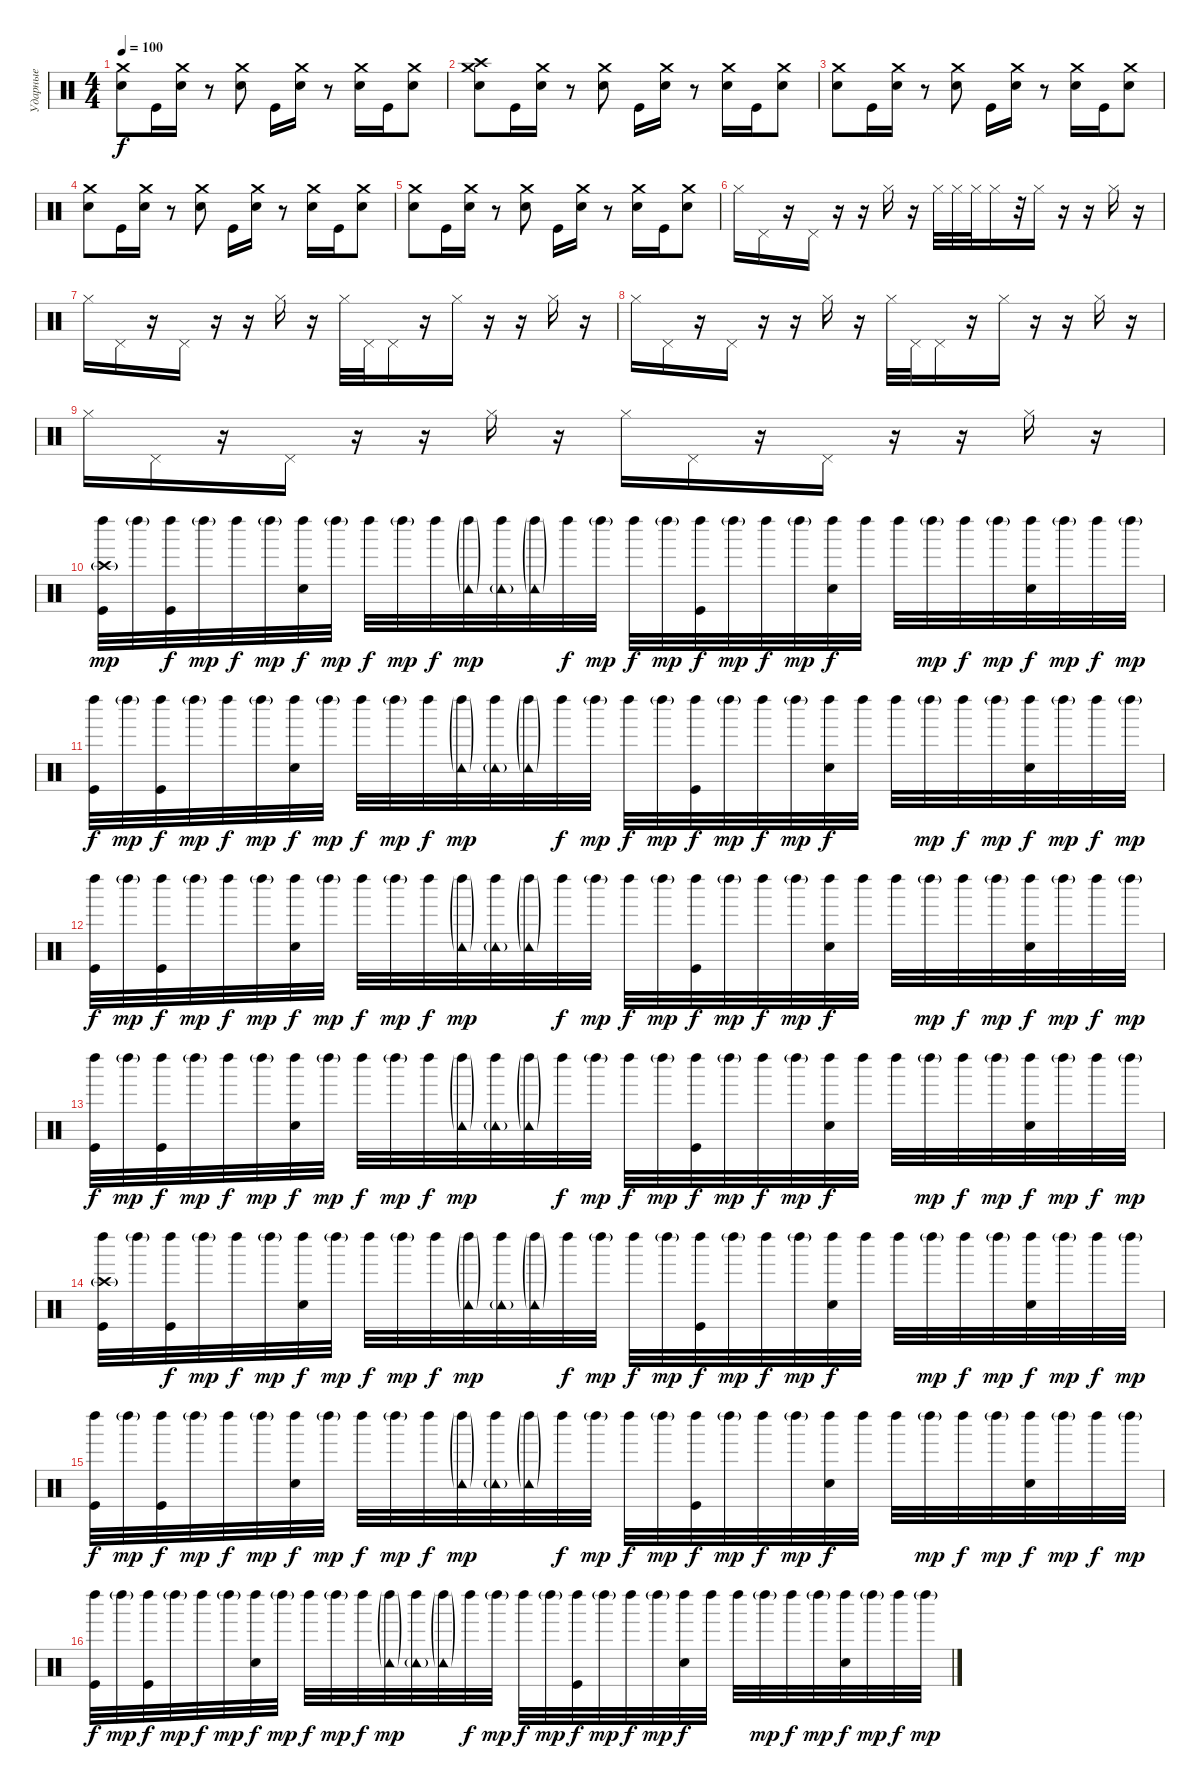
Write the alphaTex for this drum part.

\track ("Ударные" "Ударные") {instrument percussion}
\staff {score}
\articulation defaults
\ts (4 4)
\tempo 100
\clef neutral
\ks c
("Crash medium (hit)" "Electric Snare (hit)").8{dy f} "Kick (hit)".16 ("Crash medium (hit)" "Electric Snare (hit)").16 r.8 ("Crash medium (hit)" "Electric Snare (hit)").8 "Kick (hit)".16 ("Crash medium (hit)" "Electric Snare (hit)").16 r.8 ("Crash medium (hit)" "Electric Snare (hit)").16 "Kick (hit)".16 ("Crash medium (hit)" "Electric Snare (hit)").8 |
("Crash high (hit)" "Crash medium (hit)" "Electric Snare (hit)").8 "Kick (hit)".16 ("Crash medium (hit)" "Electric Snare (hit)").16 r.8 ("Crash medium (hit)" "Electric Snare (hit)").8 "Kick (hit)".16 ("Crash medium (hit)" "Electric Snare (hit)").16 r.8 ("Crash medium (hit)" "Electric Snare (hit)").16 "Kick (hit)".16 ("Crash medium (hit)" "Electric Snare (hit)").8 |
("Crash medium (hit)" "Electric Snare (hit)").8 "Kick (hit)".16 ("Crash medium (hit)" "Electric Snare (hit)").16 r.8 ("Crash medium (hit)" "Electric Snare (hit)").8 "Kick (hit)".16 ("Crash medium (hit)" "Electric Snare (hit)").16 r.8 ("Crash medium (hit)" "Electric Snare (hit)").16 "Kick (hit)".16 ("Crash medium (hit)" "Electric Snare (hit)").8 |
("Crash medium (hit)" "Electric Snare (hit)").8 "Kick (hit)".16 ("Crash medium (hit)" "Electric Snare (hit)").16 r.8 ("Crash medium (hit)" "Electric Snare (hit)").8 "Kick (hit)".16 ("Crash medium (hit)" "Electric Snare (hit)").16 r.8 ("Crash medium (hit)" "Electric Snare (hit)").16 "Kick (hit)".16 ("Crash medium (hit)" "Electric Snare (hit)").8 |
("Crash medium (hit)" "Electric Snare (hit)").8 "Kick (hit)".16 ("Crash medium (hit)" "Electric Snare (hit)").16 r.8 ("Crash medium (hit)" "Electric Snare (hit)").8 "Kick (hit)".16 ("Crash medium (hit)" "Electric Snare (hit)").16 r.8 ("Crash medium (hit)" "Electric Snare (hit)").16 "Kick (hit)".16 ("Crash medium (hit)" "Electric Snare (hit)").8 |
"Hi-Hat (closed)".16 "Pedal Hi-Hat (hit)".16 r.16 "Pedal Hi-Hat (hit)".16 r.16 r.16 "Hi-Hat (closed)".16 r.16 "Hi-Hat (closed)".32 "Hi-Hat (closed)".32 "Hi-Hat (closed)".32 "Hi-Hat (closed)".16 r.32 "Hi-Hat (closed)".16 r.16 r.16 "Hi-Hat (closed)".16 r.16 |
"Hi-Hat (closed)".16 "Pedal Hi-Hat (hit)".16 r.16 "Pedal Hi-Hat (hit)".16 r.16 r.16 "Hi-Hat (closed)".16 r.16 "Hi-Hat (closed)".32 "Pedal Hi-Hat (hit)".32 "Pedal Hi-Hat (hit)".16 r.16 "Hi-Hat (closed)".16 r.16 r.16 "Hi-Hat (closed)".16 r.16 |
"Hi-Hat (closed)".16 "Pedal Hi-Hat (hit)".16 r.16 "Pedal Hi-Hat (hit)".16 r.16 r.16 "Hi-Hat (closed)".16 r.16 "Hi-Hat (closed)".32 "Pedal Hi-Hat (hit)".32 "Pedal Hi-Hat (hit)".16 r.16 "Hi-Hat (closed)".16 r.16 r.16 "Hi-Hat (closed)".16 r.16 |
"Hi-Hat (closed)".16 "Pedal Hi-Hat (hit)".16 r.16 "Pedal Hi-Hat (hit)".16 r.16 r.16 "Hi-Hat (closed)".16 r.16 "Hi-Hat (closed)".16 "Pedal Hi-Hat (hit)".16 r.16 "Pedal Hi-Hat (hit)".16 r.16 r.16 "Hi-Hat (closed)".16 r.16 |
("Left Maraca (hit)" "Crash high (hit)"{g} "Kick (hit)").32{dy mp} "Left Maraca (hit)"{g}.32 ("Left Maraca (hit)" "Kick (hit)").32{dy f} "Left Maraca (hit)"{g}.32{dy mp} "Left Maraca (hit)".32{dy f} "Left Maraca (hit)"{g}.32{dy mp} ("Left Maraca (hit)" "Electric Snare (hit)").32{dy f} "Left Maraca (hit)"{g}.32{dy mp} "Left Maraca (hit)".32{dy f} "Left Maraca (hit)"{g}.32{dy mp} "Left Maraca (hit)".32{dy f} ("Left Maraca (hit)"{g} "Tambourine (hit)"{g}).32{dy mp} ("Left Maraca (hit)" "Tambourine (hit)"{g}).32 ("Left Maraca (hit)"{g} "Tambourine (hit)"{g}).32 "Left Maraca (hit)".32{dy f} "Left Maraca (hit)"{g}.32{dy mp} "Left Maraca (hit)".32{dy f} "Left Maraca (hit)"{g}.32{dy mp} ("Left Maraca (hit)" "Kick (hit)").32{dy f} "Left Maraca (hit)"{g}.32{dy mp} "Left Maraca (hit)".32{dy f} "Left Maraca (hit)"{g}.32{dy mp} ("Left Maraca (hit)" "Electric Snare (hit)").32{dy f} "Left Maraca (hit)".32 "Left Maraca (hit)".32 "Left Maraca (hit)"{g}.32{dy mp} "Left Maraca (hit)".32{dy f} "Left Maraca (hit)"{g}.32{dy mp} ("Left Maraca (hit)" "Electric Snare (hit)").32{dy f} "Left Maraca (hit)"{g}.32{dy mp} "Left Maraca (hit)".32{dy f} "Left Maraca (hit)"{g}.32{dy mp} |
("Left Maraca (hit)" "Kick (hit)").32{dy f} "Left Maraca (hit)"{g}.32{dy mp} ("Left Maraca (hit)" "Kick (hit)").32{dy f} "Left Maraca (hit)"{g}.32{dy mp} "Left Maraca (hit)".32{dy f} "Left Maraca (hit)"{g}.32{dy mp} ("Left Maraca (hit)" "Electric Snare (hit)").32{dy f} "Left Maraca (hit)"{g}.32{dy mp} "Left Maraca (hit)".32{dy f} "Left Maraca (hit)"{g}.32{dy mp} "Left Maraca (hit)".32{dy f} ("Left Maraca (hit)"{g} "Tambourine (hit)"{g}).32{dy mp} ("Left Maraca (hit)" "Tambourine (hit)"{g}).32 ("Left Maraca (hit)"{g} "Tambourine (hit)"{g}).32 "Left Maraca (hit)".32{dy f} "Left Maraca (hit)"{g}.32{dy mp} "Left Maraca (hit)".32{dy f} "Left Maraca (hit)"{g}.32{dy mp} ("Left Maraca (hit)" "Kick (hit)").32{dy f} "Left Maraca (hit)"{g}.32{dy mp} "Left Maraca (hit)".32{dy f} "Left Maraca (hit)"{g}.32{dy mp} ("Left Maraca (hit)" "Electric Snare (hit)").32{dy f} "Left Maraca (hit)".32 "Left Maraca (hit)".32 "Left Maraca (hit)"{g}.32{dy mp} "Left Maraca (hit)".32{dy f} "Left Maraca (hit)"{g}.32{dy mp} ("Left Maraca (hit)" "Electric Snare (hit)").32{dy f} "Left Maraca (hit)"{g}.32{dy mp} "Left Maraca (hit)".32{dy f} "Left Maraca (hit)"{g}.32{dy mp} |
("Left Maraca (hit)" "Kick (hit)").32{dy f} "Left Maraca (hit)"{g}.32{dy mp} ("Left Maraca (hit)" "Kick (hit)").32{dy f} "Left Maraca (hit)"{g}.32{dy mp} "Left Maraca (hit)".32{dy f} "Left Maraca (hit)"{g}.32{dy mp} ("Left Maraca (hit)" "Electric Snare (hit)").32{dy f} "Left Maraca (hit)"{g}.32{dy mp} "Left Maraca (hit)".32{dy f} "Left Maraca (hit)"{g}.32{dy mp} "Left Maraca (hit)".32{dy f} ("Left Maraca (hit)"{g} "Tambourine (hit)"{g}).32{dy mp} ("Left Maraca (hit)" "Tambourine (hit)"{g}).32 ("Left Maraca (hit)"{g} "Tambourine (hit)"{g}).32 "Left Maraca (hit)".32{dy f} "Left Maraca (hit)"{g}.32{dy mp} "Left Maraca (hit)".32{dy f} "Left Maraca (hit)"{g}.32{dy mp} ("Left Maraca (hit)" "Kick (hit)").32{dy f} "Left Maraca (hit)"{g}.32{dy mp} "Left Maraca (hit)".32{dy f} "Left Maraca (hit)"{g}.32{dy mp} ("Left Maraca (hit)" "Electric Snare (hit)").32{dy f} "Left Maraca (hit)".32 "Left Maraca (hit)".32 "Left Maraca (hit)"{g}.32{dy mp} "Left Maraca (hit)".32{dy f} "Left Maraca (hit)"{g}.32{dy mp} ("Left Maraca (hit)" "Electric Snare (hit)").32{dy f} "Left Maraca (hit)"{g}.32{dy mp} "Left Maraca (hit)".32{dy f} "Left Maraca (hit)"{g}.32{dy mp} |
("Left Maraca (hit)" "Kick (hit)").32{dy f} "Left Maraca (hit)"{g}.32{dy mp} ("Left Maraca (hit)" "Kick (hit)").32{dy f} "Left Maraca (hit)"{g}.32{dy mp} "Left Maraca (hit)".32{dy f} "Left Maraca (hit)"{g}.32{dy mp} ("Left Maraca (hit)" "Electric Snare (hit)").32{dy f} "Left Maraca (hit)"{g}.32{dy mp} "Left Maraca (hit)".32{dy f} "Left Maraca (hit)"{g}.32{dy mp} "Left Maraca (hit)".32{dy f} ("Left Maraca (hit)"{g} "Tambourine (hit)"{g}).32{dy mp} ("Left Maraca (hit)" "Tambourine (hit)"{g}).32 ("Left Maraca (hit)"{g} "Tambourine (hit)"{g}).32 "Left Maraca (hit)".32{dy f} "Left Maraca (hit)"{g}.32{dy mp} "Left Maraca (hit)".32{dy f} "Left Maraca (hit)"{g}.32{dy mp} ("Left Maraca (hit)" "Kick (hit)").32{dy f} "Left Maraca (hit)"{g}.32{dy mp} "Left Maraca (hit)".32{dy f} "Left Maraca (hit)"{g}.32{dy mp} ("Left Maraca (hit)" "Electric Snare (hit)").32{dy f} "Left Maraca (hit)".32 "Left Maraca (hit)".32 "Left Maraca (hit)"{g}.32{dy mp} "Left Maraca (hit)".32{dy f} "Left Maraca (hit)"{g}.32{dy mp} ("Left Maraca (hit)" "Electric Snare (hit)").32{dy f} "Left Maraca (hit)"{g}.32{dy mp} "Left Maraca (hit)".32{dy f} "Left Maraca (hit)"{g}.32{dy mp} |
("Left Maraca (hit)" "Crash high (hit)"{g} "Kick (hit)").32 "Left Maraca (hit)"{g}.32 ("Left Maraca (hit)" "Kick (hit)").32{dy f} "Left Maraca (hit)"{g}.32{dy mp} "Left Maraca (hit)".32{dy f} "Left Maraca (hit)"{g}.32{dy mp} ("Left Maraca (hit)" "Electric Snare (hit)").32{dy f} "Left Maraca (hit)"{g}.32{dy mp} "Left Maraca (hit)".32{dy f} "Left Maraca (hit)"{g}.32{dy mp} "Left Maraca (hit)".32{dy f} ("Left Maraca (hit)"{g} "Tambourine (hit)"{g}).32{dy mp} ("Left Maraca (hit)" "Tambourine (hit)"{g}).32 ("Left Maraca (hit)"{g} "Tambourine (hit)"{g}).32 "Left Maraca (hit)".32{dy f} "Left Maraca (hit)"{g}.32{dy mp} "Left Maraca (hit)".32{dy f} "Left Maraca (hit)"{g}.32{dy mp} ("Left Maraca (hit)" "Kick (hit)").32{dy f} "Left Maraca (hit)"{g}.32{dy mp} "Left Maraca (hit)".32{dy f} "Left Maraca (hit)"{g}.32{dy mp} ("Left Maraca (hit)" "Electric Snare (hit)").32{dy f} "Left Maraca (hit)".32 "Left Maraca (hit)".32 "Left Maraca (hit)"{g}.32{dy mp} "Left Maraca (hit)".32{dy f} "Left Maraca (hit)"{g}.32{dy mp} ("Left Maraca (hit)" "Electric Snare (hit)").32{dy f} "Left Maraca (hit)"{g}.32{dy mp} "Left Maraca (hit)".32{dy f} "Left Maraca (hit)"{g}.32{dy mp} |
("Left Maraca (hit)" "Kick (hit)").32{dy f} "Left Maraca (hit)"{g}.32{dy mp} ("Left Maraca (hit)" "Kick (hit)").32{dy f} "Left Maraca (hit)"{g}.32{dy mp} "Left Maraca (hit)".32{dy f} "Left Maraca (hit)"{g}.32{dy mp} ("Left Maraca (hit)" "Electric Snare (hit)").32{dy f} "Left Maraca (hit)"{g}.32{dy mp} "Left Maraca (hit)".32{dy f} "Left Maraca (hit)"{g}.32{dy mp} "Left Maraca (hit)".32{dy f} ("Left Maraca (hit)"{g} "Tambourine (hit)"{g}).32{dy mp} ("Left Maraca (hit)" "Tambourine (hit)"{g}).32 ("Left Maraca (hit)"{g} "Tambourine (hit)"{g}).32 "Left Maraca (hit)".32{dy f} "Left Maraca (hit)"{g}.32{dy mp} "Left Maraca (hit)".32{dy f} "Left Maraca (hit)"{g}.32{dy mp} ("Left Maraca (hit)" "Kick (hit)").32{dy f} "Left Maraca (hit)"{g}.32{dy mp} "Left Maraca (hit)".32{dy f} "Left Maraca (hit)"{g}.32{dy mp} ("Left Maraca (hit)" "Electric Snare (hit)").32{dy f} "Left Maraca (hit)".32 "Left Maraca (hit)".32 "Left Maraca (hit)"{g}.32{dy mp} "Left Maraca (hit)".32{dy f} "Left Maraca (hit)"{g}.32{dy mp} ("Left Maraca (hit)" "Electric Snare (hit)").32{dy f} "Left Maraca (hit)"{g}.32{dy mp} "Left Maraca (hit)".32{dy f} "Left Maraca (hit)"{g}.32{dy mp} |
("Left Maraca (hit)" "Kick (hit)").32{dy f} "Left Maraca (hit)"{g}.32{dy mp} ("Left Maraca (hit)" "Kick (hit)").32{dy f} "Left Maraca (hit)"{g}.32{dy mp} "Left Maraca (hit)".32{dy f} "Left Maraca (hit)"{g}.32{dy mp} ("Left Maraca (hit)" "Electric Snare (hit)").32{dy f} "Left Maraca (hit)"{g}.32{dy mp} "Left Maraca (hit)".32{dy f} "Left Maraca (hit)"{g}.32{dy mp} "Left Maraca (hit)".32{dy f} ("Left Maraca (hit)"{g} "Tambourine (hit)"{g}).32{dy mp} ("Left Maraca (hit)" "Tambourine (hit)"{g}).32 ("Left Maraca (hit)"{g} "Tambourine (hit)"{g}).32 "Left Maraca (hit)".32{dy f} "Left Maraca (hit)"{g}.32{dy mp} "Left Maraca (hit)".32{dy f} "Left Maraca (hit)"{g}.32{dy mp} ("Left Maraca (hit)" "Kick (hit)").32{dy f} "Left Maraca (hit)"{g}.32{dy mp} "Left Maraca (hit)".32{dy f} "Left Maraca (hit)"{g}.32{dy mp} ("Left Maraca (hit)" "Electric Snare (hit)").32{dy f} "Left Maraca (hit)".32 "Left Maraca (hit)".32 "Left Maraca (hit)"{g}.32{dy mp} "Left Maraca (hit)".32{dy f} "Left Maraca (hit)"{g}.32{dy mp} ("Left Maraca (hit)" "Electric Snare (hit)").32{dy f} "Left Maraca (hit)"{g}.32{dy mp} "Left Maraca (hit)".32{dy f} "Left Maraca (hit)"{g}.32{dy mp}
